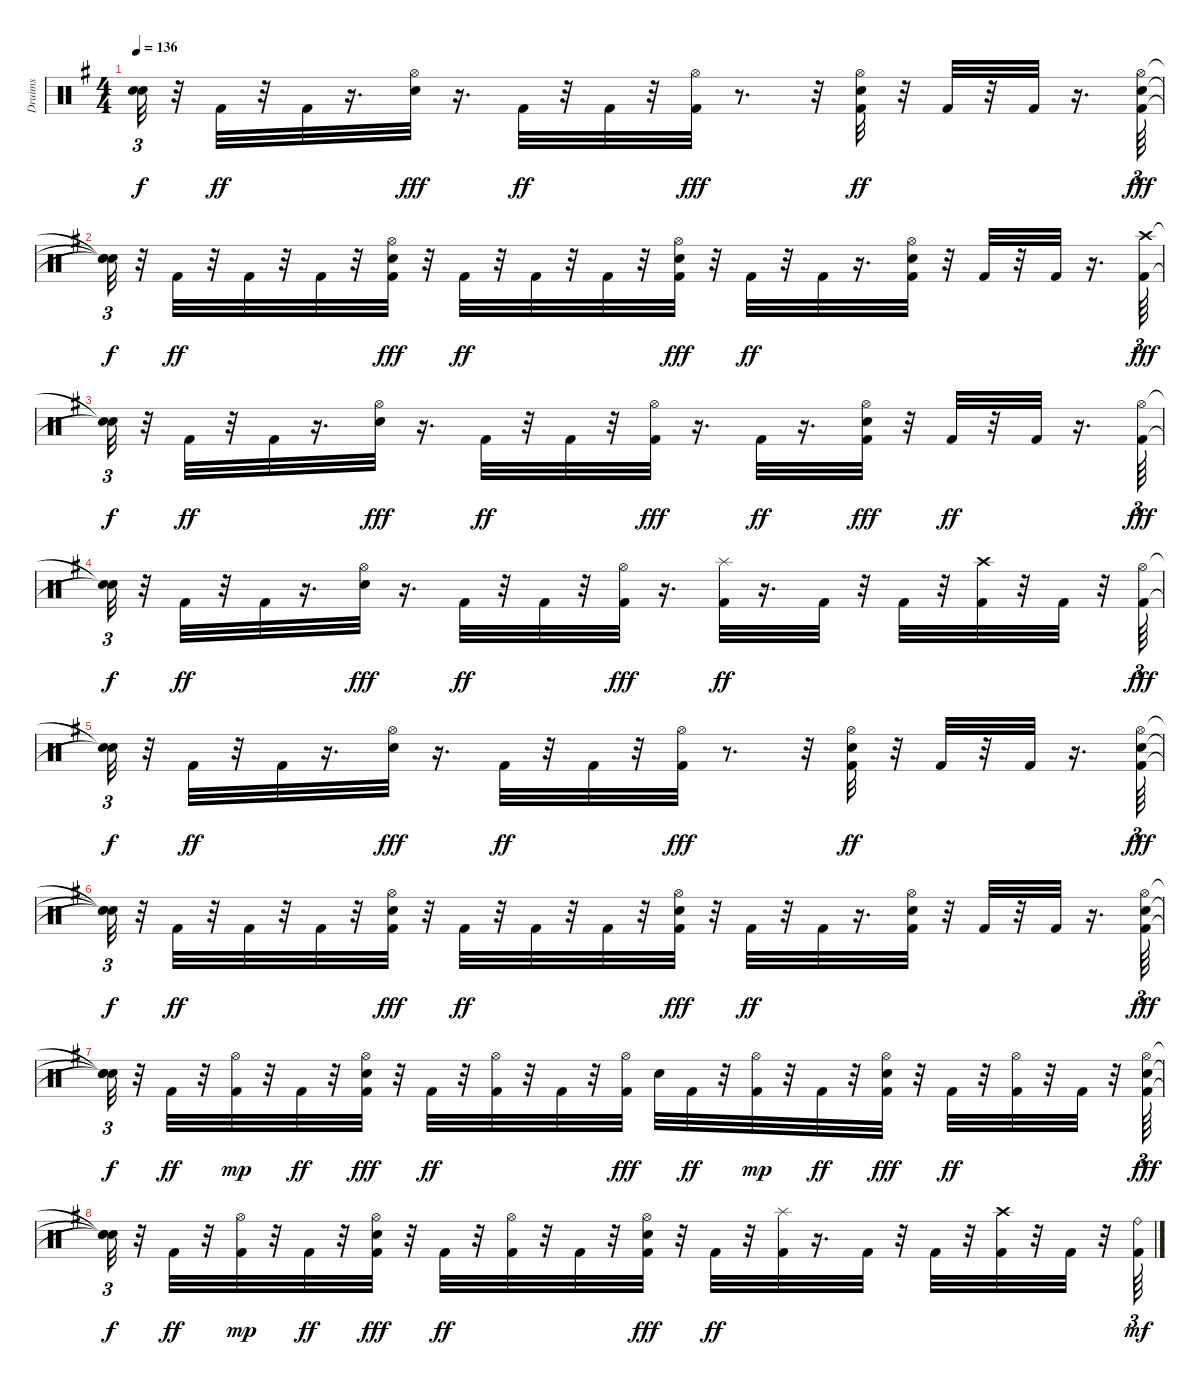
\track ("Druims" "Druims") {instrument percussion}
\staff {score}
\articulation defaults
\ts (4 4)
\tempo 136
\clef neutral
\ks eminor
("Snare (hit)"{t} "Snare (hit)"{t}).32{tu (3 2) dy f} r.32 "Kick (hit) 2".32{dy ff} r.32 "Kick (hit) 2".32 r.16{d} ("Hi-Hat (open)" "Snare (hit) 2").32{dy fff} r.16{d} "Kick (hit) 2".32{dy ff} r.32 "Kick (hit) 2".32 r.32 ("Kick (hit) 2" "Hi-Hat (open)").32{dy fff} r.8{d} r.32 ("Snare (hit) 2" "Hi-Hat (open)" "Kick (hit) 2").32{dy ff} r.32 "Kick (hit) 2".32 r.32 "Kick (hit) 2".32 r.16{d} ("Kick (hit) 2" "Snare (hit)" "Hi-Hat (open)").64{tu (3 2) dy fff} |
("Snare (hit)"{t} "Snare (hit)"{t} "Snare (hit)"{t}).32{tu (3 2) dy f} r.32 "Kick (hit) 2".32{dy ff} r.32 "Kick (hit) 2".32 r.32 "Kick (hit) 2".32 r.32 ("Hi-Hat (open)" "Kick (hit) 2" "Snare (hit) 2").32{dy fff} r.32 "Kick (hit) 2".32{dy ff} r.32 "Kick (hit) 2".32 r.32 "Kick (hit) 2".32 r.32 ("Snare (hit) 2" "Kick (hit) 2" "Hi-Hat (open)").32{dy fff} r.32 "Kick (hit) 2".32{dy ff} r.32 "Kick (hit) 2".32 r.16{d} ("Hi-Hat (open)" "Snare (hit) 2" "Kick (hit) 2").32 r.32 "Kick (hit) 2".32 r.32 "Kick (hit) 2".32 r.16{d} ("Kick (hit) 2" "Crash high (hit)").64{tu (3 2) dy fff} |
("Snare (hit)"{t} "Snare (hit)"{t}).32{tu (3 2) dy f} r.32 "Kick (hit) 2".32{dy ff} r.32 "Kick (hit) 2".32 r.16{d} ("Hi-Hat (open)" "Snare (hit) 2").32{dy fff} r.16{d} "Kick (hit) 2".32{dy ff} r.32 "Kick (hit) 2".32 r.32 ("Kick (hit) 2" "Hi-Hat (open)").32{dy fff} r.16{d} "Kick (hit) 2".32{dy ff} r.16{d} ("Hi-Hat (open)" "Kick (hit) 2" "Snare (hit) 2").32{dy fff} r.32 "Kick (hit) 2".32{dy ff} r.32 "Kick (hit) 2".32 r.16{d} ("Kick (hit) 2" "Hi-Hat (open)").64{tu (3 2) dy fff} |
("Snare (hit)"{t} "Snare (hit)"{t}).32{tu (3 2) dy f} r.32 "Kick (hit) 2".32{dy ff} r.32 "Kick (hit) 2".32 r.16{d} ("Hi-Hat (open)" "Snare (hit) 2").32{dy fff} r.16{d} "Kick (hit) 2".32{dy ff} r.32 "Kick (hit) 2".32 r.32 ("Kick (hit) 2" "Hi-Hat (open)").32{dy fff} r.16{d} ("Splash (hit)" "Kick (hit) 2").32{dy ff} r.16{d} "Kick (hit) 2".32 r.32 "Kick (hit) 2".32 r.32 ("Crash high (hit)" "Kick (hit) 2").32 r.32 "Kick (hit) 2".32 r.32 ("Kick (hit) 2" "Hi-Hat (open)").64{tu (3 2) dy fff} |
("Snare (hit)"{t} "Snare (hit)"{t}).32{tu (3 2) dy f} r.32 "Kick (hit) 2".32{dy ff} r.32 "Kick (hit) 2".32 r.16{d} ("Hi-Hat (open)" "Snare (hit) 2").32{dy fff} r.16{d} "Kick (hit) 2".32{dy ff} r.32 "Kick (hit) 2".32 r.32 ("Kick (hit) 2" "Hi-Hat (open)").32{dy fff} r.8{d} r.32 ("Snare (hit) 2" "Hi-Hat (open)" "Kick (hit) 2").32{dy ff} r.32 "Kick (hit) 2".32 r.32 "Kick (hit) 2".32 r.16{d} ("Kick (hit) 2" "Snare (hit)" "Hi-Hat (open)").64{tu (3 2) dy fff} |
("Snare (hit)"{t} "Snare (hit)"{t} "Snare (hit)"{t}).32{tu (3 2) dy f} r.32 "Kick (hit) 2".32{dy ff} r.32 "Kick (hit) 2".32 r.32 "Kick (hit) 2".32 r.32 ("Hi-Hat (open)" "Kick (hit) 2" "Snare (hit) 2").32{dy fff} r.32 "Kick (hit) 2".32{dy ff} r.32 "Kick (hit) 2".32 r.32 "Kick (hit) 2".32 r.32 ("Snare (hit) 2" "Kick (hit) 2" "Hi-Hat (open)").32{dy fff} r.32 "Kick (hit) 2".32{dy ff} r.32 "Kick (hit) 2".32 r.16{d} ("Hi-Hat (open)" "Snare (hit) 2" "Kick (hit) 2").32 r.32 "Kick (hit) 2".32 r.32 "Kick (hit) 2".32 r.16{d} ("Kick (hit) 2" "Hi-Hat (open)" "Snare (hit) 2").64{tu (3 2) dy fff} |
("Snare (hit)"{t} "Snare (hit)"{t} "Snare (hit)"{t}).32{tu (3 2) dy f} r.32 "Kick (hit) 2".32{dy ff} r.32 ("Kick (hit) 2" "Hi-Hat (open)").32{dy mp} r.32 "Kick (hit) 2".32{dy ff} r.32 ("Kick (hit) 2" "Hi-Hat (open)" "Snare (hit) 2").32{dy fff} r.32 "Kick (hit) 2".32{dy ff} r.32 ("Hi-Hat (open)" "Kick (hit) 2").32 r.32 "Kick (hit) 2".32 r.32 ("Kick (hit) 2" "Hi-Hat (open)").32{dy fff} "Snare (hit) 2".32 "Kick (hit) 2".32{dy ff} r.32 ("Kick (hit) 2" "Hi-Hat (open)").32{dy mp} r.32 "Kick (hit) 2".32{dy ff} r.32 ("Kick (hit) 2" "Snare (hit) 2" "Hi-Hat (open)").32{dy fff} r.32 "Kick (hit) 2".32{dy ff} r.32 ("Hi-Hat (open)" "Kick (hit) 2").32 r.32 "Kick (hit) 2".32 r.32 ("Kick (hit) 2" "Hi-Hat (open)" "Snare (hit) 2").64{tu (3 2) dy fff} |
("Snare (hit)"{t} "Snare (hit)"{t} "Snare (hit)"{t}).32{tu (3 2) dy f} r.32 "Kick (hit) 2".32{dy ff} r.32 ("Kick (hit) 2" "Hi-Hat (open)").32{dy mp} r.32 "Kick (hit) 2".32{dy ff} r.32 ("Kick (hit) 2" "Snare (hit) 2" "Hi-Hat (open)").32{dy fff} r.32 "Kick (hit) 2".32{dy ff} r.32 ("Hi-Hat (open)" "Kick (hit) 2").32 r.32 "Kick (hit) 2".32 r.32 ("Kick (hit) 2" "Hi-Hat (open)" "Snare (hit) 2").32{dy fff} r.32 "Kick (hit) 2".32{dy ff} r.32 ("Splash (hit)" "Kick (hit) 2").32 r.16{d} "Kick (hit) 2".32 r.32 "Kick (hit) 2".32 r.32 ("Crash high (hit)" "Kick (hit) 2").32 r.32 "Kick (hit) 2".32 r.32 ("Kick (hit) 2" "Ride (bell)").64{tu (3 2) dy mf}
